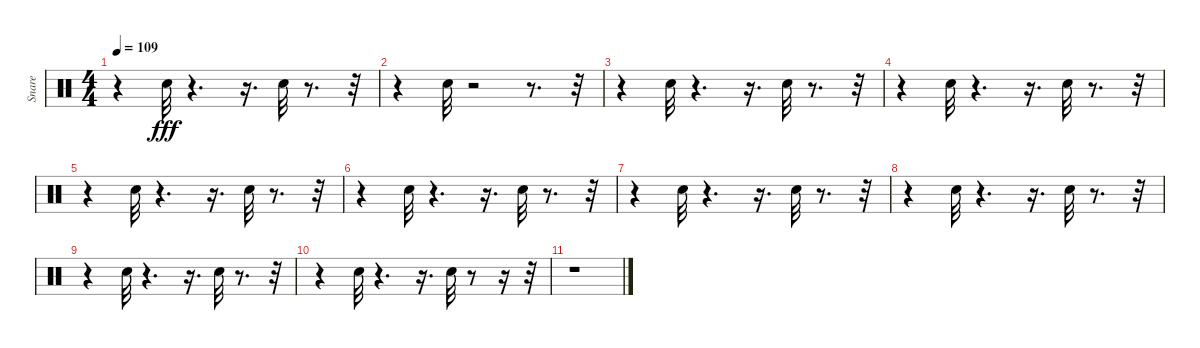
\track ("Snare" "Snare") {instrument percussion}
\staff {score}
\articulation defaults
\ts (4 4)
\tempo 109
\clef neutral
\ks c
r.4{dy fff} "Snare (hit) 2".32 r.4{d} r.16{d} "Snare (hit) 2".32 r.8{d} r.32 |
r.4 "Snare (hit) 2".32 r.2 r.8{d} r.32 |
r.4 "Snare (hit) 2".32 r.4{d} r.16{d} "Snare (hit) 2".32 r.8{d} r.32 |
r.4 "Snare (hit) 2".32 r.4{d} r.16{d} "Snare (hit) 2".32 r.8{d} r.32 |
r.4 "Snare (hit) 2".32 r.4{d} r.16{d} "Snare (hit) 2".32 r.8{d} r.32 |
r.4 "Snare (hit) 2".32 r.4{d} r.16{d} "Snare (hit) 2".32 r.8{d} r.32 |
r.4 "Snare (hit) 2".32 r.4{d} r.16{d} "Snare (hit) 2".32 r.8{d} r.32 |
r.4 "Snare (hit) 2".32 r.4{d} r.16{d} "Snare (hit) 2".32 r.8{d} r.32 |
r.4 "Snare (hit) 2".32 r.4{d} r.16{d} "Snare (hit) 2".32 r.8{d} r.32 |
r.4 "Snare (hit) 2".32 r.4{d} r.16{d} "Snare (hit) 2".32 r.8 r.16 r.32 |
r.1
